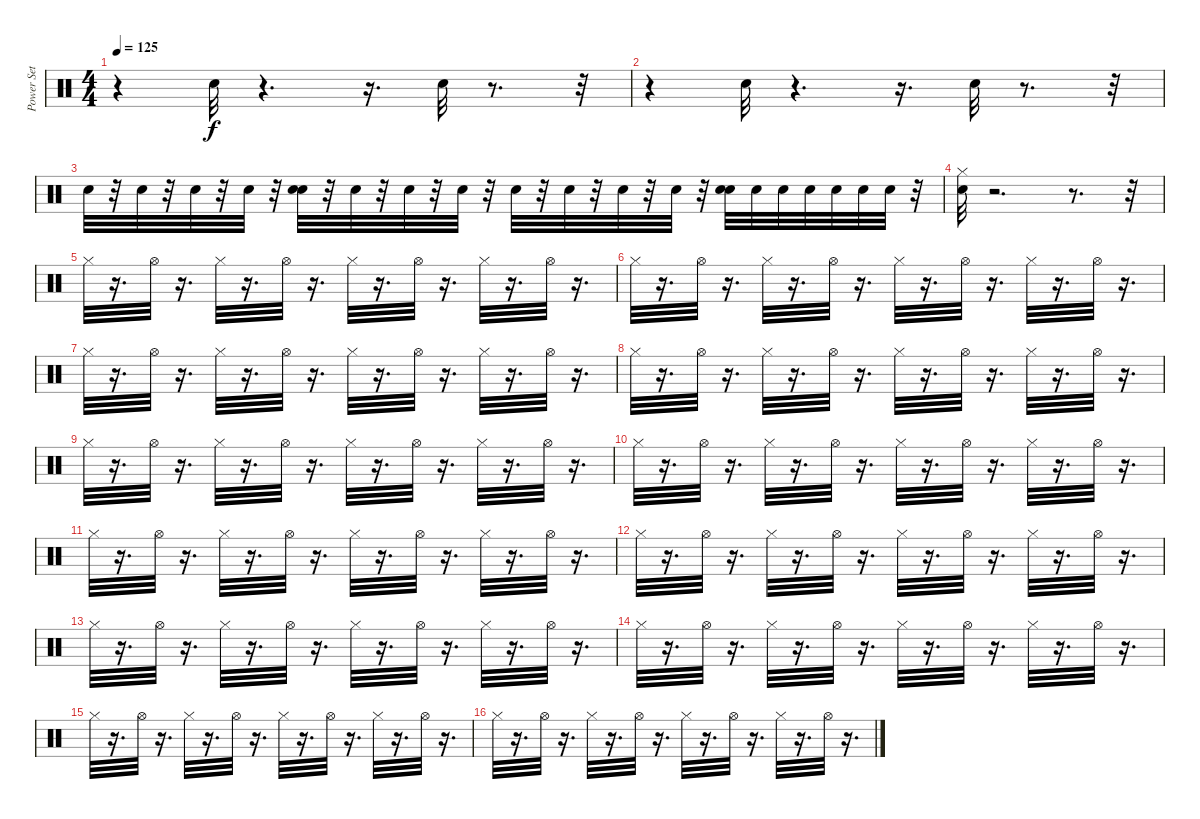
\track ("Power Set" "Power Set") {instrument percussion}
\staff {score}
\articulation defaults
\ts (4 4)
\tempo 125
\clef neutral
\ks c
r.4{dy f} "Snare (hit) 2".32 r.4{d} r.16{d} "Snare (hit) 2".32 r.8{d} r.32 |
r.4 "Snare (hit) 2".32 r.4{d} r.16{d} "Snare (hit) 2".32 r.8{d} r.32 |
"Electric Snare (hit)".32 r.32 "Electric Snare (hit)".32 r.32 "Electric Snare (hit)".32 r.32 "Electric Snare (hit)".32 r.32 ("Electric Snare (hit)" "Snare (hit) 2").32 r.32 "Electric Snare (hit)".32 r.32 "Electric Snare (hit)".32 r.32 "Electric Snare (hit)".32 r.32 "Electric Snare (hit)".32 r.32 "Electric Snare (hit)".32 r.32 "Electric Snare (hit)".32 r.32 "Electric Snare (hit)".32 r.32 ("Electric Snare (hit)" "Snare (hit) 2").32 "Electric Snare (hit)".32 "Electric Snare (hit)".32 "Electric Snare (hit)".32 "Electric Snare (hit)".32 "Electric Snare (hit)".32 "Electric Snare (hit)".32 r.32 |
("Electric Snare (hit)" "Hi-Hat (closed)").32 r.2{d} r.8{d} r.32 |
"Hi-Hat (closed)".32 r.16{d} "Hi-Hat (open)".32 r.16{d} "Hi-Hat (closed)".32 r.16{d} "Hi-Hat (open)".32 r.16{d} "Hi-Hat (closed)".32 r.16{d} "Hi-Hat (open)".32 r.16{d} "Hi-Hat (closed)".32 r.16{d} "Hi-Hat (open)".32 r.16{d} |
"Hi-Hat (closed)".32 r.16{d} "Hi-Hat (open)".32 r.16{d} "Hi-Hat (closed)".32 r.16{d} "Hi-Hat (open)".32 r.16{d} "Hi-Hat (closed)".32 r.16{d} "Hi-Hat (open)".32 r.16{d} "Hi-Hat (closed)".32 r.16{d} "Hi-Hat (open)".32 r.16{d} |
"Hi-Hat (closed)".32 r.16{d} "Hi-Hat (open)".32 r.16{d} "Hi-Hat (closed)".32 r.16{d} "Hi-Hat (open)".32 r.16{d} "Hi-Hat (closed)".32 r.16{d} "Hi-Hat (open)".32 r.16{d} "Hi-Hat (closed)".32 r.16{d} "Hi-Hat (open)".32 r.16{d} |
"Hi-Hat (closed)".32 r.16{d} "Hi-Hat (open)".32 r.16{d} "Hi-Hat (closed)".32 r.16{d} "Hi-Hat (open)".32 r.16{d} "Hi-Hat (closed)".32 r.16{d} "Hi-Hat (open)".32 r.16{d} "Hi-Hat (closed)".32 r.16{d} "Hi-Hat (open)".32 r.16{d} |
"Hi-Hat (closed)".32 r.16{d} "Hi-Hat (open)".32 r.16{d} "Hi-Hat (closed)".32 r.16{d} "Hi-Hat (open)".32 r.16{d} "Hi-Hat (closed)".32 r.16{d} "Hi-Hat (open)".32 r.16{d} "Hi-Hat (closed)".32 r.16{d} "Hi-Hat (open)".32 r.16{d} |
"Hi-Hat (closed)".32 r.16{d} "Hi-Hat (open)".32 r.16{d} "Hi-Hat (closed)".32 r.16{d} "Hi-Hat (open)".32 r.16{d} "Hi-Hat (closed)".32 r.16{d} "Hi-Hat (open)".32 r.16{d} "Hi-Hat (closed)".32 r.16{d} "Hi-Hat (open)".32 r.16{d} |
"Hi-Hat (closed)".32 r.16{d} "Hi-Hat (open)".32 r.16{d} "Hi-Hat (closed)".32 r.16{d} "Hi-Hat (open)".32 r.16{d} "Hi-Hat (closed)".32 r.16{d} "Hi-Hat (open)".32 r.16{d} "Hi-Hat (closed)".32 r.16{d} "Hi-Hat (open)".32 r.16{d} |
"Hi-Hat (closed)".32 r.16{d} "Hi-Hat (open)".32 r.16{d} "Hi-Hat (closed)".32 r.16{d} "Hi-Hat (open)".32 r.16{d} "Hi-Hat (closed)".32 r.16{d} "Hi-Hat (open)".32 r.16{d} "Hi-Hat (closed)".32 r.16{d} "Hi-Hat (open)".32 r.16{d} |
"Hi-Hat (closed)".32 r.16{d} "Hi-Hat (open)".32 r.16{d} "Hi-Hat (closed)".32 r.16{d} "Hi-Hat (open)".32 r.16{d} "Hi-Hat (closed)".32 r.16{d} "Hi-Hat (open)".32 r.16{d} "Hi-Hat (closed)".32 r.16{d} "Hi-Hat (open)".32 r.16{d} |
"Hi-Hat (closed)".32 r.16{d} "Hi-Hat (open)".32 r.16{d} "Hi-Hat (closed)".32 r.16{d} "Hi-Hat (open)".32 r.16{d} "Hi-Hat (closed)".32 r.16{d} "Hi-Hat (open)".32 r.16{d} "Hi-Hat (closed)".32 r.16{d} "Hi-Hat (open)".32 r.16{d} |
"Hi-Hat (closed)".32 r.16{d} "Hi-Hat (open)".32 r.16{d} "Hi-Hat (closed)".32 r.16{d} "Hi-Hat (open)".32 r.16{d} "Hi-Hat (closed)".32 r.16{d} "Hi-Hat (open)".32 r.16{d} "Hi-Hat (closed)".32 r.16{d} "Hi-Hat (open)".32 r.16{d} |
"Hi-Hat (closed)".32 r.16{d} "Hi-Hat (open)".32 r.16{d} "Hi-Hat (closed)".32 r.16{d} "Hi-Hat (open)".32 r.16{d} "Hi-Hat (closed)".32 r.16{d} "Hi-Hat (open)".32 r.16{d} "Hi-Hat (closed)".32 r.16{d} "Hi-Hat (open)".32 r.16{d}
